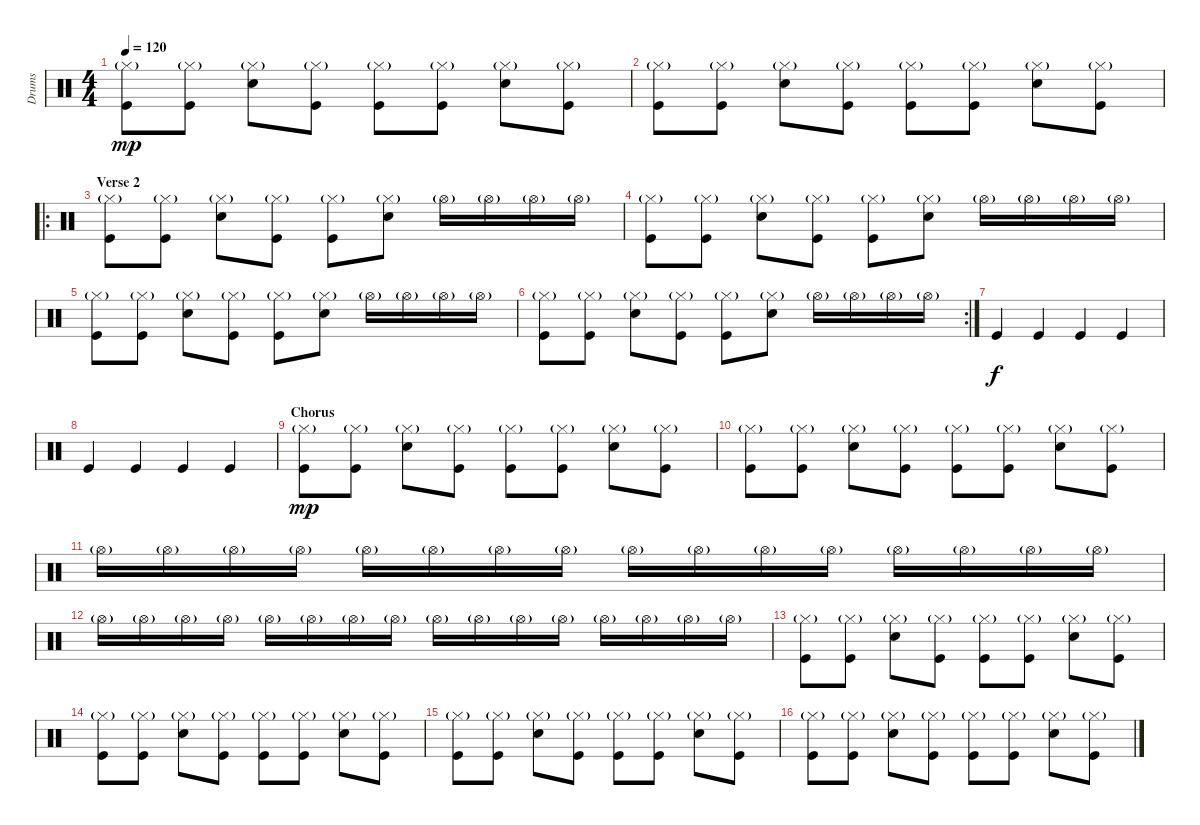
\track ("Drums" "Drums") {instrument percussion}
\staff {score}
\articulation defaults
\ts (4 4)
\tempo 120
\clef neutral
\ks c
("Hi-Hat (closed)"{g} "Kick (hit)").8{dy mp} ("Hi-Hat (closed)"{g} "Kick (hit)").8 ("Hi-Hat (closed)"{g} "Electric Snare (hit)").8 ("Hi-Hat (closed)"{g} "Kick (hit)").8 ("Hi-Hat (closed)"{g} "Kick (hit)").8 ("Hi-Hat (closed)"{g} "Kick (hit)").8 ("Hi-Hat (closed)"{g} "Electric Snare (hit)").8 ("Hi-Hat (closed)"{g} "Kick (hit)").8 |
("Hi-Hat (closed)"{g} "Kick (hit)").8 ("Hi-Hat (closed)"{g} "Kick (hit)").8 ("Hi-Hat (closed)"{g} "Electric Snare (hit)").8 ("Hi-Hat (closed)"{g} "Kick (hit)").8 ("Hi-Hat (closed)"{g} "Kick (hit)").8 ("Hi-Hat (closed)"{g} "Kick (hit)").8 ("Hi-Hat (closed)"{g} "Electric Snare (hit)").8 ("Hi-Hat (closed)"{g} "Kick (hit)").8 |
\ro
\section ("" "Verse 2")
("Hi-Hat (closed)"{g} "Kick (hit)").8 ("Hi-Hat (closed)"{g} "Kick (hit)").8 ("Hi-Hat (closed)"{g} "Electric Snare (hit)").8 ("Hi-Hat (closed)"{g} "Kick (hit)").8 ("Hi-Hat (closed)"{g} "Kick (hit)").8 ("Hi-Hat (closed)"{g} "Electric Snare (hit)").8 "Hi-Hat (open)"{g}.16 "Hi-Hat (open)"{g}.16 "Hi-Hat (open)"{g}.16 "Hi-Hat (open)"{g}.16 |
("Hi-Hat (closed)"{g} "Kick (hit)").8 ("Hi-Hat (closed)"{g} "Kick (hit)").8 ("Hi-Hat (closed)"{g} "Electric Snare (hit)").8 ("Hi-Hat (closed)"{g} "Kick (hit)").8 ("Hi-Hat (closed)"{g} "Kick (hit)").8 ("Hi-Hat (closed)"{g} "Electric Snare (hit)").8 "Hi-Hat (open)"{g}.16 "Hi-Hat (open)"{g}.16 "Hi-Hat (open)"{g}.16 "Hi-Hat (open)"{g}.16 |
("Hi-Hat (closed)"{g} "Kick (hit)").8 ("Hi-Hat (closed)"{g} "Kick (hit)").8 ("Hi-Hat (closed)"{g} "Electric Snare (hit)").8 ("Hi-Hat (closed)"{g} "Kick (hit)").8 ("Hi-Hat (closed)"{g} "Kick (hit)").8 ("Hi-Hat (closed)"{g} "Electric Snare (hit)").8 "Hi-Hat (open)"{g}.16 "Hi-Hat (open)"{g}.16 "Hi-Hat (open)"{g}.16 "Hi-Hat (open)"{g}.16 |
\rc 2
("Hi-Hat (closed)"{g} "Kick (hit)").8 ("Hi-Hat (closed)"{g} "Kick (hit)").8 ("Hi-Hat (closed)"{g} "Electric Snare (hit)").8 ("Hi-Hat (closed)"{g} "Kick (hit)").8 ("Hi-Hat (closed)"{g} "Kick (hit)").8 ("Hi-Hat (closed)"{g} "Electric Snare (hit)").8 "Hi-Hat (open)"{g}.16 "Hi-Hat (open)"{g}.16 "Hi-Hat (open)"{g}.16 "Hi-Hat (open)"{g}.16 |
"Kick (hit)".4{dy f} "Kick (hit)".4 "Kick (hit)".4 "Kick (hit)".4 |
"Kick (hit)".4 "Kick (hit)".4 "Kick (hit)".4 "Kick (hit)".4 |
\section ("" "Chorus")
("Hi-Hat (closed)"{g} "Kick (hit)").8{dy mp} ("Hi-Hat (closed)"{g} "Kick (hit)").8 ("Hi-Hat (closed)"{g} "Electric Snare (hit)").8 ("Hi-Hat (closed)"{g} "Kick (hit)").8 ("Hi-Hat (closed)"{g} "Kick (hit)").8 ("Hi-Hat (closed)"{g} "Kick (hit)").8 ("Hi-Hat (closed)"{g} "Electric Snare (hit)").8 ("Hi-Hat (closed)"{g} "Kick (hit)").8 |
("Hi-Hat (closed)"{g} "Kick (hit)").8 ("Hi-Hat (closed)"{g} "Kick (hit)").8 ("Hi-Hat (closed)"{g} "Electric Snare (hit)").8 ("Hi-Hat (closed)"{g} "Kick (hit)").8 ("Hi-Hat (closed)"{g} "Kick (hit)").8 ("Hi-Hat (closed)"{g} "Kick (hit)").8 ("Hi-Hat (closed)"{g} "Electric Snare (hit)").8 ("Hi-Hat (closed)"{g} "Kick (hit)").8 |
"Hi-Hat (open)"{g}.16 "Hi-Hat (open)"{g}.16 "Hi-Hat (open)"{g}.16 "Hi-Hat (open)"{g}.16 "Hi-Hat (open)"{g}.16 "Hi-Hat (open)"{g}.16 "Hi-Hat (open)"{g}.16 "Hi-Hat (open)"{g}.16 "Hi-Hat (open)"{g}.16 "Hi-Hat (open)"{g}.16 "Hi-Hat (open)"{g}.16 "Hi-Hat (open)"{g}.16 "Hi-Hat (open)"{g}.16 "Hi-Hat (open)"{g}.16 "Hi-Hat (open)"{g}.16 "Hi-Hat (open)"{g}.16 |
"Hi-Hat (open)"{g}.16 "Hi-Hat (open)"{g}.16 "Hi-Hat (open)"{g}.16 "Hi-Hat (open)"{g}.16 "Hi-Hat (open)"{g}.16 "Hi-Hat (open)"{g}.16 "Hi-Hat (open)"{g}.16 "Hi-Hat (open)"{g}.16 "Hi-Hat (open)"{g}.16 "Hi-Hat (open)"{g}.16 "Hi-Hat (open)"{g}.16 "Hi-Hat (open)"{g}.16 "Hi-Hat (open)"{g}.16 "Hi-Hat (open)"{g}.16 "Hi-Hat (open)"{g}.16 "Hi-Hat (open)"{g}.16 |
("Hi-Hat (closed)"{g} "Kick (hit)").8 ("Hi-Hat (closed)"{g} "Kick (hit)").8 ("Hi-Hat (closed)"{g} "Electric Snare (hit)").8 ("Hi-Hat (closed)"{g} "Kick (hit)").8 ("Hi-Hat (closed)"{g} "Kick (hit)").8 ("Hi-Hat (closed)"{g} "Kick (hit)").8 ("Hi-Hat (closed)"{g} "Electric Snare (hit)").8 ("Hi-Hat (closed)"{g} "Kick (hit)").8 |
("Hi-Hat (closed)"{g} "Kick (hit)").8 ("Hi-Hat (closed)"{g} "Kick (hit)").8 ("Hi-Hat (closed)"{g} "Electric Snare (hit)").8 ("Hi-Hat (closed)"{g} "Kick (hit)").8 ("Hi-Hat (closed)"{g} "Kick (hit)").8 ("Hi-Hat (closed)"{g} "Kick (hit)").8 ("Hi-Hat (closed)"{g} "Electric Snare (hit)").8 ("Hi-Hat (closed)"{g} "Kick (hit)").8 |
("Hi-Hat (closed)"{g} "Kick (hit)").8 ("Hi-Hat (closed)"{g} "Kick (hit)").8 ("Hi-Hat (closed)"{g} "Electric Snare (hit)").8 ("Hi-Hat (closed)"{g} "Kick (hit)").8 ("Hi-Hat (closed)"{g} "Kick (hit)").8 ("Hi-Hat (closed)"{g} "Kick (hit)").8 ("Hi-Hat (closed)"{g} "Electric Snare (hit)").8 ("Hi-Hat (closed)"{g} "Kick (hit)").8 |
("Hi-Hat (closed)"{g} "Kick (hit)").8 ("Hi-Hat (closed)"{g} "Kick (hit)").8 ("Hi-Hat (closed)"{g} "Electric Snare (hit)").8 ("Hi-Hat (closed)"{g} "Kick (hit)").8 ("Hi-Hat (closed)"{g} "Kick (hit)").8 ("Hi-Hat (closed)"{g} "Kick (hit)").8 ("Hi-Hat (closed)"{g} "Electric Snare (hit)").8 ("Hi-Hat (closed)"{g} "Kick (hit)").8
